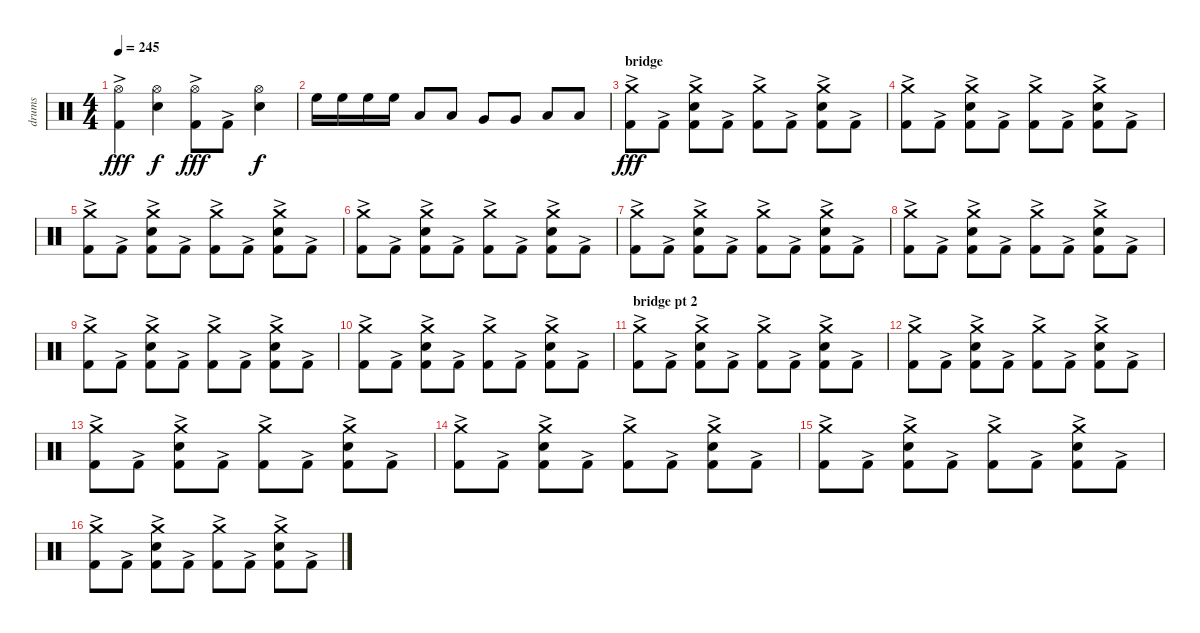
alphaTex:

\track ("drums" "drums") {instrument percussion}
\staff {score}
\articulation defaults
\ts (4 4)
\tempo 245
\clef neutral
\ks c
("Hi-Hat (open)" "Kick (hit) 2"{ac}).4{dy fff} ("Hi-Hat (open)" "Electric Snare (hit)").4{dy f} ("Hi-Hat (open)" "Kick (hit) 2"{ac}).8{dy fff} "Kick (hit) 2"{ac}.8 ("Hi-Hat (open)" "Electric Snare (hit)").4{dy f} |
"High Floor Tom (hit)".16 "High Floor Tom (hit)".16 "High Floor Tom (hit)".16 "High Floor Tom (hit)".16 "Low Tom (hit)".8 "Low Tom (hit)".8 "Very Low Tom (hit)".8 "Very Low Tom (hit)".8 "Low Floor Tom (hit)".8 "Low Floor Tom (hit)".8 |
\section ("" "bridge")
("Crash medium (hit)" "Kick (hit) 2"{ac}).8{dy fff} "Kick (hit) 2"{ac}.8 ("Crash medium (hit)" "Electric Snare (hit)" "Kick (hit) 2"{ac}).8 "Kick (hit) 2"{ac}.8 ("Crash medium (hit)" "Kick (hit) 2"{ac}).8 "Kick (hit) 2"{ac}.8 ("Crash medium (hit)" "Electric Snare (hit)" "Kick (hit) 2"{ac}).8 "Kick (hit) 2"{ac}.8 |
("Crash medium (hit)" "Kick (hit) 2"{ac}).8 "Kick (hit) 2"{ac}.8 ("Crash medium (hit)" "Electric Snare (hit)" "Kick (hit) 2"{ac}).8 "Kick (hit) 2"{ac}.8 ("Crash medium (hit)" "Kick (hit) 2"{ac}).8 "Kick (hit) 2"{ac}.8 ("Crash medium (hit)" "Electric Snare (hit)" "Kick (hit) 2"{ac}).8 "Kick (hit) 2"{ac}.8 |
("Crash medium (hit)" "Kick (hit) 2"{ac}).8 "Kick (hit) 2"{ac}.8 ("Crash medium (hit)" "Electric Snare (hit)" "Kick (hit) 2"{ac}).8 "Kick (hit) 2"{ac}.8 ("Crash medium (hit)" "Kick (hit) 2"{ac}).8 "Kick (hit) 2"{ac}.8 ("Crash medium (hit)" "Electric Snare (hit)" "Kick (hit) 2"{ac}).8 "Kick (hit) 2"{ac}.8 |
("Crash medium (hit)" "Kick (hit) 2"{ac}).8 "Kick (hit) 2"{ac}.8 ("Crash medium (hit)" "Electric Snare (hit)" "Kick (hit) 2"{ac}).8 "Kick (hit) 2"{ac}.8 ("Crash medium (hit)" "Kick (hit) 2"{ac}).8 "Kick (hit) 2"{ac}.8 ("Crash medium (hit)" "Electric Snare (hit)" "Kick (hit) 2"{ac}).8 "Kick (hit) 2"{ac}.8 |
("Crash medium (hit)" "Kick (hit) 2"{ac}).8 "Kick (hit) 2"{ac}.8 ("Crash medium (hit)" "Electric Snare (hit)" "Kick (hit) 2"{ac}).8 "Kick (hit) 2"{ac}.8 ("Crash medium (hit)" "Kick (hit) 2"{ac}).8 "Kick (hit) 2"{ac}.8 ("Crash medium (hit)" "Electric Snare (hit)" "Kick (hit) 2"{ac}).8 "Kick (hit) 2"{ac}.8 |
("Crash medium (hit)" "Kick (hit) 2"{ac}).8 "Kick (hit) 2"{ac}.8 ("Crash medium (hit)" "Electric Snare (hit)" "Kick (hit) 2"{ac}).8 "Kick (hit) 2"{ac}.8 ("Crash medium (hit)" "Kick (hit) 2"{ac}).8 "Kick (hit) 2"{ac}.8 ("Crash medium (hit)" "Electric Snare (hit)" "Kick (hit) 2"{ac}).8 "Kick (hit) 2"{ac}.8 |
("Crash medium (hit)" "Kick (hit) 2"{ac}).8 "Kick (hit) 2"{ac}.8 ("Crash medium (hit)" "Electric Snare (hit)" "Kick (hit) 2"{ac}).8 "Kick (hit) 2"{ac}.8 ("Crash medium (hit)" "Kick (hit) 2"{ac}).8 "Kick (hit) 2"{ac}.8 ("Crash medium (hit)" "Electric Snare (hit)" "Kick (hit) 2"{ac}).8 "Kick (hit) 2"{ac}.8 |
("Crash medium (hit)" "Kick (hit) 2"{ac}).8 "Kick (hit) 2"{ac}.8 ("Crash medium (hit)" "Electric Snare (hit)" "Kick (hit) 2"{ac}).8 "Kick (hit) 2"{ac}.8 ("Crash medium (hit)" "Kick (hit) 2"{ac}).8 "Kick (hit) 2"{ac}.8 ("Crash medium (hit)" "Electric Snare (hit)" "Kick (hit) 2"{ac}).8 "Kick (hit) 2"{ac}.8 |
\section ("" "bridge pt 2")
("Crash medium (hit)" "Kick (hit) 2"{ac}).8 "Kick (hit) 2"{ac}.8 ("Crash medium (hit)" "Electric Snare (hit)" "Kick (hit) 2"{ac}).8 "Kick (hit) 2"{ac}.8 ("Crash medium (hit)" "Kick (hit) 2"{ac}).8 "Kick (hit) 2"{ac}.8 ("Crash medium (hit)" "Electric Snare (hit)" "Kick (hit) 2"{ac}).8 "Kick (hit) 2"{ac}.8 |
("Crash medium (hit)" "Kick (hit) 2"{ac}).8 "Kick (hit) 2"{ac}.8 ("Crash medium (hit)" "Electric Snare (hit)" "Kick (hit) 2"{ac}).8 "Kick (hit) 2"{ac}.8 ("Crash medium (hit)" "Kick (hit) 2"{ac}).8 "Kick (hit) 2"{ac}.8 ("Crash medium (hit)" "Electric Snare (hit)" "Kick (hit) 2"{ac}).8 "Kick (hit) 2"{ac}.8 |
("Crash medium (hit)" "Kick (hit) 2"{ac}).8 "Kick (hit) 2"{ac}.8 ("Crash medium (hit)" "Electric Snare (hit)" "Kick (hit) 2"{ac}).8 "Kick (hit) 2"{ac}.8 ("Crash medium (hit)" "Kick (hit) 2"{ac}).8 "Kick (hit) 2"{ac}.8 ("Crash medium (hit)" "Electric Snare (hit)" "Kick (hit) 2"{ac}).8 "Kick (hit) 2"{ac}.8 |
("Crash medium (hit)" "Kick (hit) 2"{ac}).8 "Kick (hit) 2"{ac}.8 ("Crash medium (hit)" "Electric Snare (hit)" "Kick (hit) 2"{ac}).8 "Kick (hit) 2"{ac}.8 ("Crash medium (hit)" "Kick (hit) 2"{ac}).8 "Kick (hit) 2"{ac}.8 ("Crash medium (hit)" "Electric Snare (hit)" "Kick (hit) 2"{ac}).8 "Kick (hit) 2"{ac}.8 |
("Crash medium (hit)" "Kick (hit) 2"{ac}).8 "Kick (hit) 2"{ac}.8 ("Crash medium (hit)" "Electric Snare (hit)" "Kick (hit) 2"{ac}).8 "Kick (hit) 2"{ac}.8 ("Crash medium (hit)" "Kick (hit) 2"{ac}).8 "Kick (hit) 2"{ac}.8 ("Crash medium (hit)" "Electric Snare (hit)" "Kick (hit) 2"{ac}).8 "Kick (hit) 2"{ac}.8 |
("Crash medium (hit)" "Kick (hit) 2"{ac}).8 "Kick (hit) 2"{ac}.8 ("Crash medium (hit)" "Electric Snare (hit)" "Kick (hit) 2"{ac}).8 "Kick (hit) 2"{ac}.8 ("Crash medium (hit)" "Kick (hit) 2"{ac}).8 "Kick (hit) 2"{ac}.8 ("Crash medium (hit)" "Electric Snare (hit)" "Kick (hit) 2"{ac}).8 "Kick (hit) 2"{ac}.8
